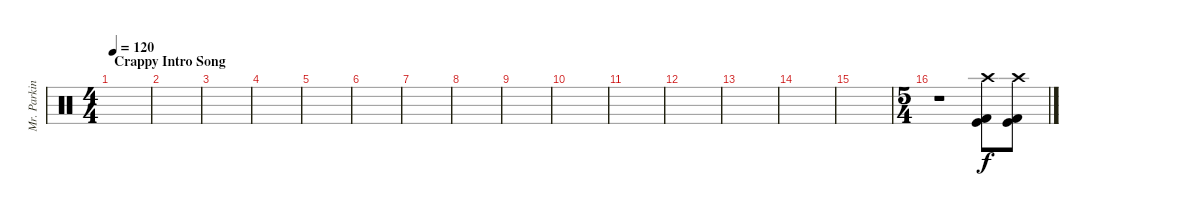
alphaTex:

\track ("Mr. Parkinson" "Mr. Parkin") {instrument percussion}
\staff {score}
\articulation defaults
\ts (4 4)
\section ("" "Crappy Intro Song")
\tempo 120
\clef neutral
\ks c
|
|
|
|
|
|
|
|
|
|
|
|
|
|
|
\ts (5 4)
r.1 ("Crash high (hit)" "Kick (hit)" "Kick (hit) 2").8 ("Crash high (hit)" "Kick (hit)" "Kick (hit) 2").8
